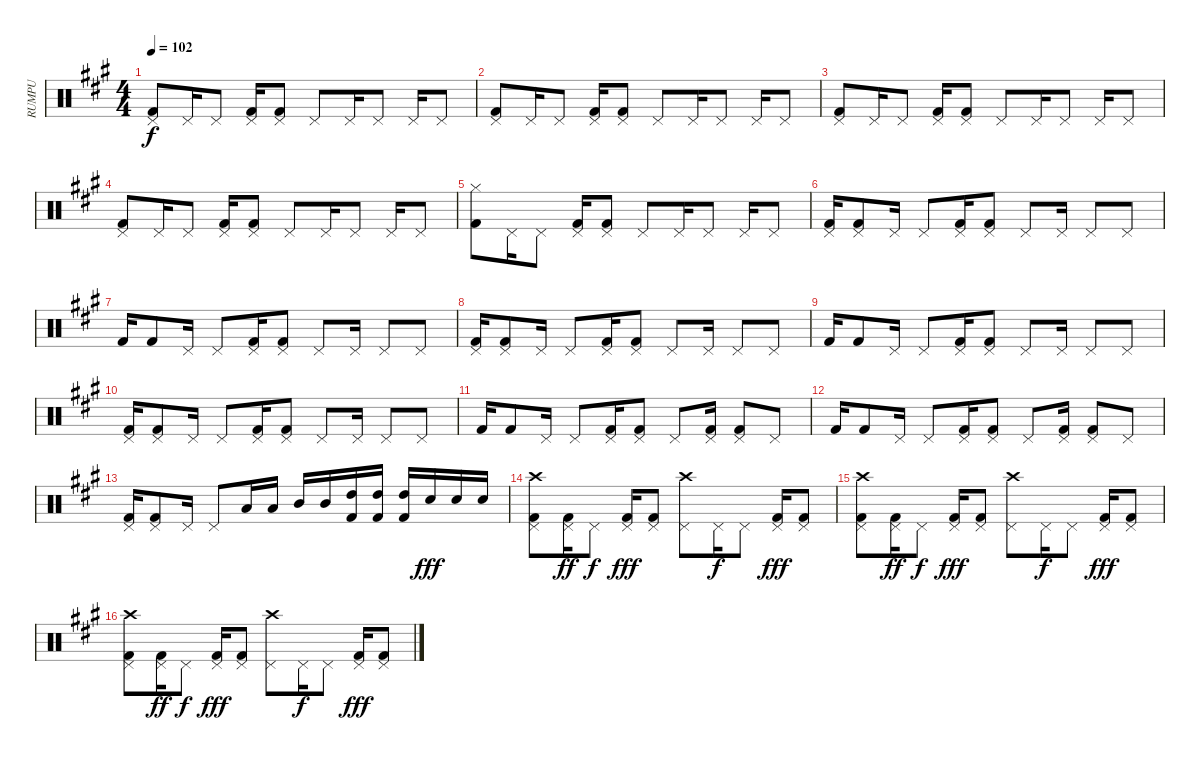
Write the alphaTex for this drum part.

\track ("RUMPU" "RUMPU") {instrument percussion}
\staff {score}
\articulation defaults
\ts (4 4)
\tempo 102
\clef neutral
\ks a
("Kick (hit) 2" "Pedal Hi-Hat (hit)").8{dy f} "Pedal Hi-Hat (hit)".16 "Pedal Hi-Hat (hit)".8 ("Kick (hit) 2" "Pedal Hi-Hat (hit)").16 ("Kick (hit) 2" "Pedal Hi-Hat (hit)").8 "Pedal Hi-Hat (hit)".8 "Pedal Hi-Hat (hit)".16 "Pedal Hi-Hat (hit)".8 "Pedal Hi-Hat (hit)".16 "Pedal Hi-Hat (hit)".8 |
("Kick (hit) 2" "Pedal Hi-Hat (hit)").8 "Pedal Hi-Hat (hit)".16 "Pedal Hi-Hat (hit)".8 ("Kick (hit) 2" "Pedal Hi-Hat (hit)").16 ("Kick (hit) 2" "Pedal Hi-Hat (hit)").8 "Pedal Hi-Hat (hit)".8 "Pedal Hi-Hat (hit)".16 "Pedal Hi-Hat (hit)".8 "Pedal Hi-Hat (hit)".16 "Pedal Hi-Hat (hit)".8 |
("Kick (hit) 2" "Pedal Hi-Hat (hit)").8 "Pedal Hi-Hat (hit)".16 "Pedal Hi-Hat (hit)".8 ("Kick (hit) 2" "Pedal Hi-Hat (hit)").16 ("Kick (hit) 2" "Pedal Hi-Hat (hit)").8 "Pedal Hi-Hat (hit)".8 "Pedal Hi-Hat (hit)".16 "Pedal Hi-Hat (hit)".8 "Pedal Hi-Hat (hit)".16 "Pedal Hi-Hat (hit)".8 |
("Kick (hit) 2" "Pedal Hi-Hat (hit)").8 "Pedal Hi-Hat (hit)".16 "Pedal Hi-Hat (hit)".8 ("Kick (hit) 2" "Pedal Hi-Hat (hit)").16 ("Kick (hit) 2" "Pedal Hi-Hat (hit)").8 "Pedal Hi-Hat (hit)".8 "Pedal Hi-Hat (hit)".16 "Pedal Hi-Hat (hit)".8 "Pedal Hi-Hat (hit)".16 "Pedal Hi-Hat (hit)".8 |
("Kick (hit) 2" "Hi-Hat (closed)").8 "Pedal Hi-Hat (hit)".16 "Pedal Hi-Hat (hit)".8 ("Kick (hit) 2" "Pedal Hi-Hat (hit)").16 ("Kick (hit) 2" "Pedal Hi-Hat (hit)").8 "Pedal Hi-Hat (hit)".8 "Pedal Hi-Hat (hit)".16 "Pedal Hi-Hat (hit)".8 "Pedal Hi-Hat (hit)".16 "Pedal Hi-Hat (hit)".8 |
("Kick (hit) 2" "Pedal Hi-Hat (hit)").16 ("Kick (hit) 2" "Pedal Hi-Hat (hit)").8 "Pedal Hi-Hat (hit)".16 "Pedal Hi-Hat (hit)".8 ("Kick (hit) 2" "Pedal Hi-Hat (hit)").16 ("Kick (hit) 2" "Pedal Hi-Hat (hit)").8 "Pedal Hi-Hat (hit)".8 "Pedal Hi-Hat (hit)".16 "Pedal Hi-Hat (hit)".8 "Pedal Hi-Hat (hit)".8 |
"Kick (hit) 2".16 "Kick (hit) 2".8 "Pedal Hi-Hat (hit)".16 "Pedal Hi-Hat (hit)".8 ("Kick (hit) 2" "Pedal Hi-Hat (hit)").16 ("Kick (hit) 2" "Pedal Hi-Hat (hit)").8 "Pedal Hi-Hat (hit)".8 "Pedal Hi-Hat (hit)".16 "Pedal Hi-Hat (hit)".8 "Pedal Hi-Hat (hit)".8 |
("Kick (hit) 2" "Pedal Hi-Hat (hit)").16 ("Kick (hit) 2" "Pedal Hi-Hat (hit)").8 "Pedal Hi-Hat (hit)".16 "Pedal Hi-Hat (hit)".8 ("Kick (hit) 2" "Pedal Hi-Hat (hit)").16 ("Kick (hit) 2" "Pedal Hi-Hat (hit)").8 "Pedal Hi-Hat (hit)".8 "Pedal Hi-Hat (hit)".16 "Pedal Hi-Hat (hit)".8 "Pedal Hi-Hat (hit)".8 |
"Kick (hit) 2".16 "Kick (hit) 2".8 "Pedal Hi-Hat (hit)".16 "Pedal Hi-Hat (hit)".8 ("Kick (hit) 2" "Pedal Hi-Hat (hit)").16 ("Kick (hit) 2" "Pedal Hi-Hat (hit)").8 "Pedal Hi-Hat (hit)".8 "Pedal Hi-Hat (hit)".16 "Pedal Hi-Hat (hit)".8 "Pedal Hi-Hat (hit)".8 |
("Kick (hit) 2" "Pedal Hi-Hat (hit)").16 ("Kick (hit) 2" "Pedal Hi-Hat (hit)").8 "Pedal Hi-Hat (hit)".16 "Pedal Hi-Hat (hit)".8 ("Kick (hit) 2" "Pedal Hi-Hat (hit)").16 ("Kick (hit) 2" "Pedal Hi-Hat (hit)").8 "Pedal Hi-Hat (hit)".8 "Pedal Hi-Hat (hit)".16 "Pedal Hi-Hat (hit)".8 "Pedal Hi-Hat (hit)".8 |
"Kick (hit) 2".16 "Kick (hit) 2".8 "Pedal Hi-Hat (hit)".16 "Pedal Hi-Hat (hit)".8 ("Kick (hit) 2" "Pedal Hi-Hat (hit)").16 ("Kick (hit) 2" "Pedal Hi-Hat (hit)").8 "Pedal Hi-Hat (hit)".8 ("Kick (hit) 2" "Pedal Hi-Hat (hit)").16 ("Kick (hit) 2" "Pedal Hi-Hat (hit)").8 "Pedal Hi-Hat (hit)".8 |
"Kick (hit) 2".16 "Kick (hit) 2".8 "Pedal Hi-Hat (hit)".16 "Pedal Hi-Hat (hit)".8 ("Kick (hit) 2" "Pedal Hi-Hat (hit)").16 ("Kick (hit) 2" "Pedal Hi-Hat (hit)").8 "Pedal Hi-Hat (hit)".8 ("Kick (hit) 2" "Pedal Hi-Hat (hit)").16 ("Kick (hit) 2" "Pedal Hi-Hat (hit)").8 "Pedal Hi-Hat (hit)".8 |
("Kick (hit) 2" "Pedal Hi-Hat (hit)").16 ("Kick (hit) 2" "Pedal Hi-Hat (hit)").8 "Pedal Hi-Hat (hit)".16 "Pedal Hi-Hat (hit)".8 "Low Tom (hit)".16 "Low Tom (hit)".16 "Mid Tom (hit)".16 "Mid Tom (hit)".16 ("Kick (hit) 2" "High Tom (hit)").16 ("Kick (hit) 2" "High Tom (hit)").16 ("Kick (hit) 2" "High Tom (hit)").16 "Electric Snare (hit)".16{dy fff} "Electric Snare (hit)".16 "Electric Snare (hit)".16 |
("Crash high (hit)" "Kick (hit) 2" "Pedal Hi-Hat (hit)").8 ("Kick (hit) 2" "Pedal Hi-Hat (hit)").16{dy ff} "Pedal Hi-Hat (hit)".8{dy f} ("Kick (hit) 2" "Pedal Hi-Hat (hit)").16{dy fff} ("Kick (hit) 2" "Pedal Hi-Hat (hit)").8 ("Crash high (hit)" "Pedal Hi-Hat (hit)").8 "Pedal Hi-Hat (hit)".16{dy f} "Pedal Hi-Hat (hit)".8 ("Kick (hit) 2" "Pedal Hi-Hat (hit)").16{dy fff} ("Kick (hit) 2" "Pedal Hi-Hat (hit)").8 |
("Crash high (hit)" "Kick (hit) 2" "Pedal Hi-Hat (hit)").8 ("Kick (hit) 2" "Pedal Hi-Hat (hit)").16{dy ff} "Pedal Hi-Hat (hit)".8{dy f} ("Kick (hit) 2" "Pedal Hi-Hat (hit)").16{dy fff} ("Kick (hit) 2" "Pedal Hi-Hat (hit)").8 ("Crash high (hit)" "Pedal Hi-Hat (hit)").8 "Pedal Hi-Hat (hit)".16{dy f} "Pedal Hi-Hat (hit)".8 ("Kick (hit) 2" "Pedal Hi-Hat (hit)").16{dy fff} ("Kick (hit) 2" "Pedal Hi-Hat (hit)").8 |
("Crash high (hit)" "Kick (hit) 2" "Pedal Hi-Hat (hit)").8 ("Kick (hit) 2" "Pedal Hi-Hat (hit)").16{dy ff} "Pedal Hi-Hat (hit)".8{dy f} ("Kick (hit) 2" "Pedal Hi-Hat (hit)").16{dy fff} ("Kick (hit) 2" "Pedal Hi-Hat (hit)").8 ("Crash high (hit)" "Pedal Hi-Hat (hit)").8 "Pedal Hi-Hat (hit)".16{dy f} "Pedal Hi-Hat (hit)".8 ("Kick (hit) 2" "Pedal Hi-Hat (hit)").16{dy fff} ("Kick (hit) 2" "Pedal Hi-Hat (hit)").8
